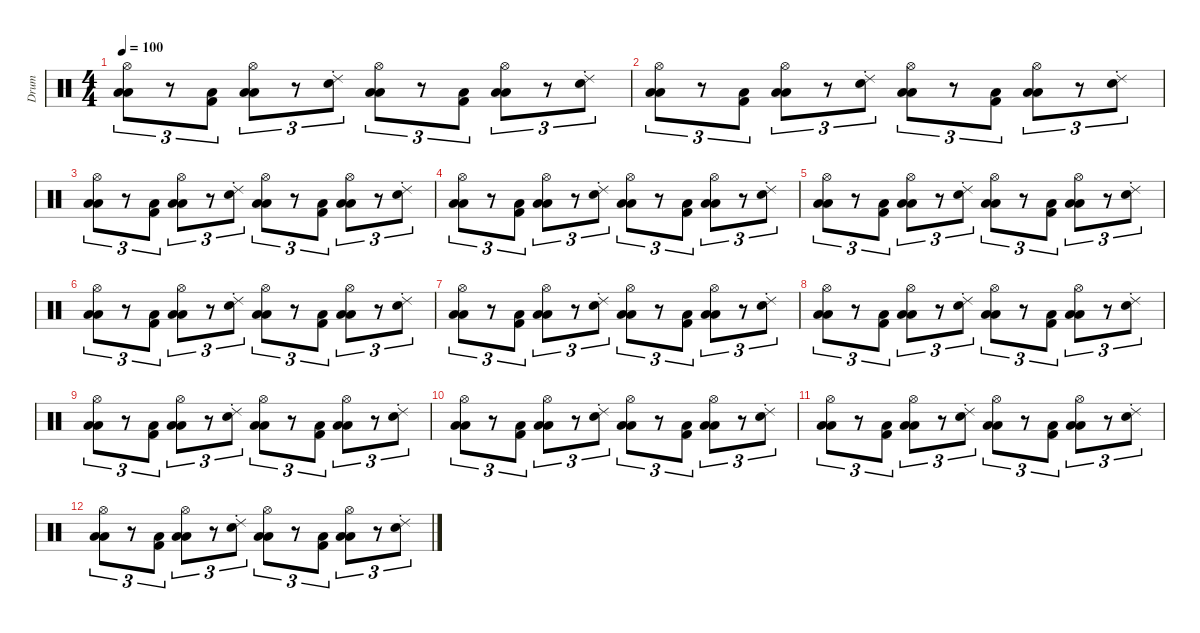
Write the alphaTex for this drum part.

\defaultSystemsLayout 4
\hideDynamics
\bracketExtendMode nobrackets
\otherSystemsTrackNameOrientation horizontal
\chordDiagramsInScore
\track ("Drumkit" "Drum") {instrument percussion}
\staff {score}
\articulation defaults
\ts (4 4)
\tempo 100
\clef neutral
\ks c
("Low Floor Tom (hit)" "Low Tom (hit)" "Hi-Hat (open)").8{tu (3 2) dy mf beam Down} r.8{tu (3 2) beam Down} ("Kick (hit) 2" "Low Floor Tom (hit)").8{tu (3 2) beam Down} ("Low Floor Tom (hit)" "Low Tom (hit)" "Hi-Hat (open)").8{tu (3 2) beam Down} r.8{tu (3 2) beam Down} ("Snare (hit) 2" "Ride (choke) 2").8{tu (3 2) beam Down} ("Low Floor Tom (hit)" "Low Tom (hit)" "Hi-Hat (open)").8{tu (3 2) beam Down} r.8{tu (3 2) beam Down} ("Kick (hit) 2" "Low Floor Tom (hit)").8{tu (3 2) beam Down} ("Low Floor Tom (hit)" "Low Tom (hit)" "Hi-Hat (open)").8{tu (3 2) beam Down} r.8{tu (3 2) beam Down} ("Snare (hit) 2" "Ride (choke) 2").8{tu (3 2) beam Down} |
("Low Floor Tom (hit)" "Low Tom (hit)" "Hi-Hat (open)").8{tu (3 2) beam Down} r.8{tu (3 2) beam Down} ("Kick (hit) 2" "Low Floor Tom (hit)").8{tu (3 2) beam Down} ("Low Floor Tom (hit)" "Low Tom (hit)" "Hi-Hat (open)").8{tu (3 2) beam Down} r.8{tu (3 2) beam Down} ("Snare (hit) 2" "Ride (choke) 2").8{tu (3 2) beam Down} ("Low Floor Tom (hit)" "Low Tom (hit)" "Hi-Hat (open)").8{tu (3 2) beam Down} r.8{tu (3 2) beam Down} ("Kick (hit) 2" "Low Floor Tom (hit)").8{tu (3 2) beam Down} ("Low Floor Tom (hit)" "Low Tom (hit)" "Hi-Hat (open)").8{tu (3 2) beam Down} r.8{tu (3 2) beam Down} ("Snare (hit) 2" "Ride (choke) 2").8{tu (3 2) beam Down} |
("Low Floor Tom (hit)" "Low Tom (hit)" "Hi-Hat (open)").8{tu (3 2) beam Down} r.8{tu (3 2) beam Down} ("Kick (hit) 2" "Low Floor Tom (hit)").8{tu (3 2) beam Down} ("Low Floor Tom (hit)" "Low Tom (hit)" "Hi-Hat (open)").8{tu (3 2) beam Down} r.8{tu (3 2) beam Down} ("Snare (hit) 2" "Ride (choke) 2").8{tu (3 2) beam Down} ("Low Floor Tom (hit)" "Low Tom (hit)" "Hi-Hat (open)").8{tu (3 2) beam Down} r.8{tu (3 2) beam Down} ("Kick (hit) 2" "Low Floor Tom (hit)").8{tu (3 2) beam Down} ("Low Floor Tom (hit)" "Low Tom (hit)" "Hi-Hat (open)").8{tu (3 2) beam Down} r.8{tu (3 2) beam Down} ("Snare (hit) 2" "Ride (choke) 2").8{tu (3 2) beam Down} |
("Low Floor Tom (hit)" "Low Tom (hit)" "Hi-Hat (open)").8{tu (3 2) beam Down} r.8{tu (3 2) beam Down} ("Kick (hit) 2" "Low Floor Tom (hit)").8{tu (3 2) beam Down} ("Low Floor Tom (hit)" "Low Tom (hit)" "Hi-Hat (open)").8{tu (3 2) beam Down} r.8{tu (3 2) beam Down} ("Snare (hit) 2" "Ride (choke) 2").8{tu (3 2) beam Down} ("Low Floor Tom (hit)" "Low Tom (hit)" "Hi-Hat (open)").8{tu (3 2) beam Down} r.8{tu (3 2) beam Down} ("Kick (hit) 2" "Low Floor Tom (hit)").8{tu (3 2) beam Down} ("Low Floor Tom (hit)" "Low Tom (hit)" "Hi-Hat (open)").8{tu (3 2) beam Down} r.8{tu (3 2) beam Down} ("Snare (hit) 2" "Ride (choke) 2").8{tu (3 2) beam Down} |
("Low Floor Tom (hit)" "Low Tom (hit)" "Hi-Hat (open)").8{tu (3 2) beam Down} r.8{tu (3 2) beam Down} ("Kick (hit) 2" "Low Floor Tom (hit)").8{tu (3 2) beam Down} ("Low Floor Tom (hit)" "Low Tom (hit)" "Hi-Hat (open)").8{tu (3 2) beam Down} r.8{tu (3 2) beam Down} ("Snare (hit) 2" "Ride (choke) 2").8{tu (3 2) beam Down} ("Low Floor Tom (hit)" "Low Tom (hit)" "Hi-Hat (open)").8{tu (3 2) beam Down} r.8{tu (3 2) beam Down} ("Kick (hit) 2" "Low Floor Tom (hit)").8{tu (3 2) beam Down} ("Low Floor Tom (hit)" "Low Tom (hit)" "Hi-Hat (open)").8{tu (3 2) beam Down} r.8{tu (3 2) beam Down} ("Snare (hit) 2" "Ride (choke) 2").8{tu (3 2) beam Down} |
("Low Floor Tom (hit)" "Low Tom (hit)" "Hi-Hat (open)").8{tu (3 2) beam Down} r.8{tu (3 2) beam Down} ("Kick (hit) 2" "Low Floor Tom (hit)").8{tu (3 2) beam Down} ("Low Floor Tom (hit)" "Low Tom (hit)" "Hi-Hat (open)").8{tu (3 2) beam Down} r.8{tu (3 2) beam Down} ("Snare (hit) 2" "Ride (choke) 2").8{tu (3 2) beam Down} ("Low Floor Tom (hit)" "Low Tom (hit)" "Hi-Hat (open)").8{tu (3 2) beam Down} r.8{tu (3 2) beam Down} ("Kick (hit) 2" "Low Floor Tom (hit)").8{tu (3 2) beam Down} ("Low Floor Tom (hit)" "Low Tom (hit)" "Hi-Hat (open)").8{tu (3 2) beam Down} r.8{tu (3 2) beam Down} ("Snare (hit) 2" "Ride (choke) 2").8{tu (3 2) beam Down} |
("Low Floor Tom (hit)" "Low Tom (hit)" "Hi-Hat (open)").8{tu (3 2) beam Down} r.8{tu (3 2) beam Down} ("Kick (hit) 2" "Low Floor Tom (hit)").8{tu (3 2) beam Down} ("Low Floor Tom (hit)" "Low Tom (hit)" "Hi-Hat (open)").8{tu (3 2) beam Down} r.8{tu (3 2) beam Down} ("Snare (hit) 2" "Ride (choke) 2").8{tu (3 2) beam Down} ("Low Floor Tom (hit)" "Low Tom (hit)" "Hi-Hat (open)").8{tu (3 2) beam Down} r.8{tu (3 2) beam Down} ("Kick (hit) 2" "Low Floor Tom (hit)").8{tu (3 2) beam Down} ("Low Floor Tom (hit)" "Low Tom (hit)" "Hi-Hat (open)").8{tu (3 2) beam Down} r.8{tu (3 2) beam Down} ("Snare (hit) 2" "Ride (choke) 2").8{tu (3 2) beam Down} |
("Low Floor Tom (hit)" "Low Tom (hit)" "Hi-Hat (open)").8{tu (3 2) beam Down} r.8{tu (3 2) beam Down} ("Kick (hit) 2" "Low Floor Tom (hit)").8{tu (3 2) beam Down} ("Low Floor Tom (hit)" "Low Tom (hit)" "Hi-Hat (open)").8{tu (3 2) beam Down} r.8{tu (3 2) beam Down} ("Snare (hit) 2" "Ride (choke) 2").8{tu (3 2) beam Down} ("Low Floor Tom (hit)" "Low Tom (hit)" "Hi-Hat (open)").8{tu (3 2) beam Down} r.8{tu (3 2) beam Down} ("Kick (hit) 2" "Low Floor Tom (hit)").8{tu (3 2) beam Down} ("Low Floor Tom (hit)" "Low Tom (hit)" "Hi-Hat (open)").8{tu (3 2) beam Down} r.8{tu (3 2) beam Down} ("Snare (hit) 2" "Ride (choke) 2").8{tu (3 2) beam Down} |
("Low Floor Tom (hit)" "Low Tom (hit)" "Hi-Hat (open)").8{tu (3 2) beam Down} r.8{tu (3 2) beam Down} ("Kick (hit) 2" "Low Floor Tom (hit)").8{tu (3 2) beam Down} ("Low Floor Tom (hit)" "Low Tom (hit)" "Hi-Hat (open)").8{tu (3 2) beam Down} r.8{tu (3 2) beam Down} ("Snare (hit) 2" "Ride (choke) 2").8{tu (3 2) beam Down} ("Low Floor Tom (hit)" "Low Tom (hit)" "Hi-Hat (open)").8{tu (3 2) beam Down} r.8{tu (3 2) beam Down} ("Kick (hit) 2" "Low Floor Tom (hit)").8{tu (3 2) beam Down} ("Low Floor Tom (hit)" "Low Tom (hit)" "Hi-Hat (open)").8{tu (3 2) beam Down} r.8{tu (3 2) beam Down} ("Snare (hit) 2" "Ride (choke) 2").8{tu (3 2) beam Down} |
("Low Floor Tom (hit)" "Low Tom (hit)" "Hi-Hat (open)").8{tu (3 2) beam Down} r.8{tu (3 2) beam Down} ("Kick (hit) 2" "Low Floor Tom (hit)").8{tu (3 2) beam Down} ("Low Floor Tom (hit)" "Low Tom (hit)" "Hi-Hat (open)").8{tu (3 2) beam Down} r.8{tu (3 2) beam Down} ("Snare (hit) 2" "Ride (choke) 2").8{tu (3 2) beam Down} ("Low Floor Tom (hit)" "Low Tom (hit)" "Hi-Hat (open)").8{tu (3 2) beam Down} r.8{tu (3 2) beam Down} ("Kick (hit) 2" "Low Floor Tom (hit)").8{tu (3 2) beam Down} ("Low Floor Tom (hit)" "Low Tom (hit)" "Hi-Hat (open)").8{tu (3 2) beam Down} r.8{tu (3 2) beam Down} ("Snare (hit) 2" "Ride (choke) 2").8{tu (3 2) beam Down} |
("Low Floor Tom (hit)" "Low Tom (hit)" "Hi-Hat (open)").8{tu (3 2) beam Down} r.8{tu (3 2) beam Down} ("Kick (hit) 2" "Low Floor Tom (hit)").8{tu (3 2) beam Down} ("Low Floor Tom (hit)" "Low Tom (hit)" "Hi-Hat (open)").8{tu (3 2) beam Down} r.8{tu (3 2) beam Down} ("Snare (hit) 2" "Ride (choke) 2").8{tu (3 2) beam Down} ("Low Floor Tom (hit)" "Low Tom (hit)" "Hi-Hat (open)").8{tu (3 2) beam Down} r.8{tu (3 2) beam Down} ("Kick (hit) 2" "Low Floor Tom (hit)").8{tu (3 2) beam Down} ("Low Floor Tom (hit)" "Low Tom (hit)" "Hi-Hat (open)").8{tu (3 2) beam Down} r.8{tu (3 2) beam Down} ("Snare (hit) 2" "Ride (choke) 2").8{tu (3 2) beam Down} |
("Low Floor Tom (hit)" "Low Tom (hit)" "Hi-Hat (open)").8{tu (3 2) beam Down} r.8{tu (3 2) beam Down} ("Kick (hit) 2" "Low Floor Tom (hit)").8{tu (3 2) beam Down} ("Low Floor Tom (hit)" "Low Tom (hit)" "Hi-Hat (open)").8{tu (3 2) beam Down} r.8{tu (3 2) beam Down} ("Snare (hit) 2" "Ride (choke) 2").8{tu (3 2) beam Down} ("Low Floor Tom (hit)" "Low Tom (hit)" "Hi-Hat (open)").8{tu (3 2) beam Down} r.8{tu (3 2) beam Down} ("Kick (hit) 2" "Low Floor Tom (hit)").8{tu (3 2) beam Down} ("Low Floor Tom (hit)" "Low Tom (hit)" "Hi-Hat (open)").8{tu (3 2) beam Down} r.8{tu (3 2) beam Down} ("Snare (hit) 2" "Ride (choke) 2").8{tu (3 2) beam Down}
